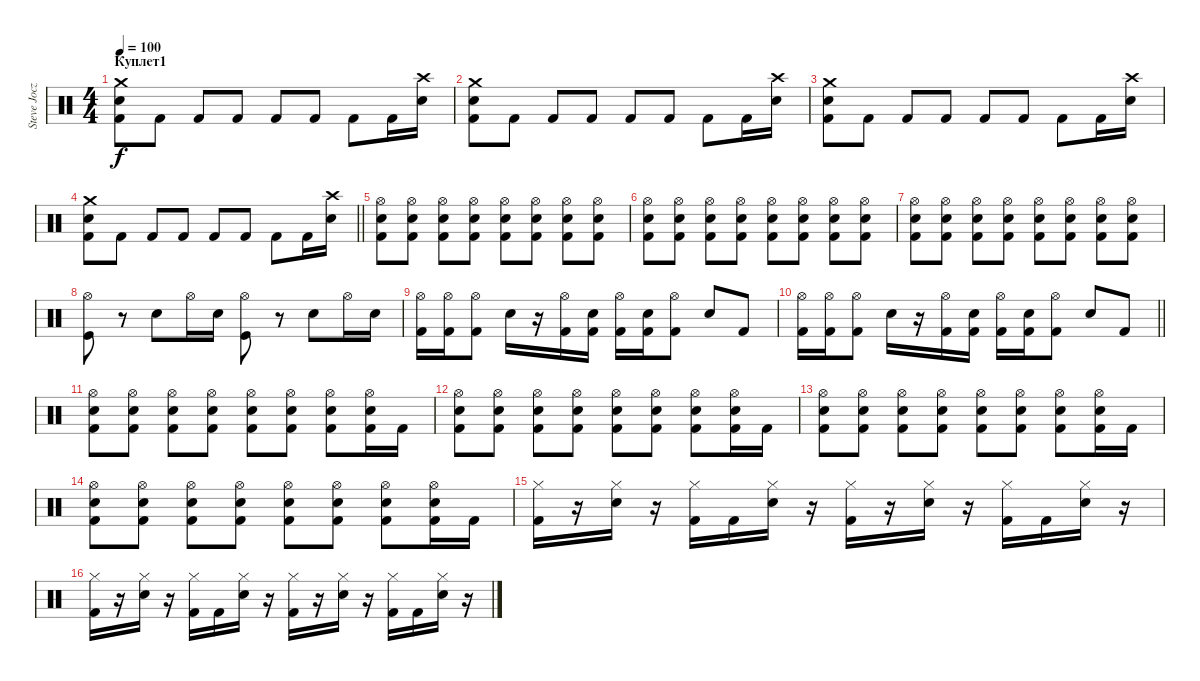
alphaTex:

\track ("Steve Jocz" "Steve Jocz") {instrument percussion}
\staff {score}
\articulation defaults
\ts (4 4)
\section ("" "Куплет1")
\tempo 100
\clef neutral
\ks c
("Crash medium (hit)" "Electric Snare (hit)" "Kick (hit) 2").8{dy f} "Kick (hit) 2".8 "Kick (hit) 2".8 "Kick (hit) 2".8 "Kick (hit) 2".8 "Kick (hit) 2".8 "Kick (hit) 2".8 "Kick (hit) 2".16 ("Crash high (hit)" "Electric Snare (hit)").16 |
("Crash medium (hit)" "Electric Snare (hit)" "Kick (hit) 2").8 "Kick (hit) 2".8 "Kick (hit) 2".8 "Kick (hit) 2".8 "Kick (hit) 2".8 "Kick (hit) 2".8 "Kick (hit) 2".8 "Kick (hit) 2".16 ("Crash high (hit)" "Electric Snare (hit)").16 |
("Crash medium (hit)" "Electric Snare (hit)" "Kick (hit) 2").8 "Kick (hit) 2".8 "Kick (hit) 2".8 "Kick (hit) 2".8 "Kick (hit) 2".8 "Kick (hit) 2".8 "Kick (hit) 2".8 "Kick (hit) 2".16 ("Crash high (hit)" "Electric Snare (hit)").16 |
\barLineRight lightlight
("Crash medium (hit)" "Electric Snare (hit)" "Kick (hit) 2").8 "Kick (hit) 2".8 "Kick (hit) 2".8 "Kick (hit) 2".8 "Kick (hit) 2".8 "Kick (hit) 2".8 "Kick (hit) 2".8 "Kick (hit) 2".16 ("Crash high (hit)" "Electric Snare (hit)").16 |
("Hi-Hat (open)" "Electric Snare (hit)" "Kick (hit) 2").8 ("Hi-Hat (open)" "Electric Snare (hit)" "Kick (hit) 2").8 ("Hi-Hat (open)" "Electric Snare (hit)" "Kick (hit) 2").8 ("Hi-Hat (open)" "Electric Snare (hit)" "Kick (hit) 2").8 ("Hi-Hat (open)" "Electric Snare (hit)" "Kick (hit) 2").8 ("Hi-Hat (open)" "Electric Snare (hit)" "Kick (hit) 2").8 ("Hi-Hat (open)" "Electric Snare (hit)" "Kick (hit) 2").8 ("Hi-Hat (open)" "Electric Snare (hit)" "Kick (hit) 2").8 |
("Hi-Hat (open)" "Electric Snare (hit)" "Kick (hit) 2").8 ("Hi-Hat (open)" "Electric Snare (hit)" "Kick (hit) 2").8 ("Hi-Hat (open)" "Electric Snare (hit)" "Kick (hit) 2").8 ("Hi-Hat (open)" "Electric Snare (hit)" "Kick (hit) 2").8 ("Hi-Hat (open)" "Electric Snare (hit)" "Kick (hit) 2").8 ("Hi-Hat (open)" "Electric Snare (hit)" "Kick (hit) 2").8 ("Hi-Hat (open)" "Electric Snare (hit)" "Kick (hit) 2").8 ("Hi-Hat (open)" "Electric Snare (hit)" "Kick (hit) 2").8 |
("Hi-Hat (open)" "Electric Snare (hit)" "Kick (hit) 2").8 ("Hi-Hat (open)" "Electric Snare (hit)" "Kick (hit) 2").8 ("Hi-Hat (open)" "Electric Snare (hit)" "Kick (hit) 2").8 ("Hi-Hat (open)" "Electric Snare (hit)" "Kick (hit) 2").8 ("Hi-Hat (open)" "Electric Snare (hit)" "Kick (hit) 2").8 ("Hi-Hat (open)" "Electric Snare (hit)" "Kick (hit) 2").8 ("Hi-Hat (open)" "Electric Snare (hit)" "Kick (hit) 2").8 ("Hi-Hat (open)" "Electric Snare (hit)" "Kick (hit) 2").8 |
("Hi-Hat (open)" "Kick (hit)").8 r.8 "Electric Snare (hit)".8 "Hi-Hat (open)".16 "Electric Snare (hit)".16 ("Hi-Hat (open)" "Kick (hit)").8 r.8 "Electric Snare (hit)".8 "Hi-Hat (open)".16 "Electric Snare (hit)".16 |
("Hi-Hat (open)" "Kick (hit) 2").16 ("Hi-Hat (open)" "Kick (hit) 2").16 ("Hi-Hat (open)" "Kick (hit) 2").8 "Electric Snare (hit)".16 r.16 ("Hi-Hat (open)" "Kick (hit) 2").16 ("Electric Snare (hit)" "Kick (hit) 2").16 ("Hi-Hat (open)" "Kick (hit) 2").16 ("Electric Snare (hit)" "Kick (hit) 2").16 ("Hi-Hat (open)" "Kick (hit) 2").8 "Electric Snare (hit)".8 "Kick (hit) 2".8 |
\barLineRight lightlight
("Hi-Hat (open)" "Kick (hit) 2").16 ("Hi-Hat (open)" "Kick (hit) 2").16 ("Hi-Hat (open)" "Kick (hit) 2").8 "Electric Snare (hit)".16 r.16 ("Hi-Hat (open)" "Kick (hit) 2").16 ("Electric Snare (hit)" "Kick (hit) 2").16 ("Hi-Hat (open)" "Kick (hit) 2").16 ("Electric Snare (hit)" "Kick (hit) 2").16 ("Hi-Hat (open)" "Kick (hit) 2").8 "Electric Snare (hit)".8 "Kick (hit) 2".8 |
("Hi-Hat (open)" "Electric Snare (hit)" "Kick (hit) 2").8 ("Hi-Hat (open)" "Electric Snare (hit)" "Kick (hit) 2").8 ("Hi-Hat (open)" "Electric Snare (hit)" "Kick (hit) 2").8 ("Hi-Hat (open)" "Electric Snare (hit)" "Kick (hit) 2").8 ("Hi-Hat (open)" "Electric Snare (hit)" "Kick (hit) 2").8 ("Hi-Hat (open)" "Electric Snare (hit)" "Kick (hit) 2").8 ("Hi-Hat (open)" "Electric Snare (hit)" "Kick (hit) 2").8 ("Hi-Hat (open)" "Electric Snare (hit)" "Kick (hit) 2").16 "Kick (hit) 2".16 |
("Hi-Hat (open)" "Electric Snare (hit)" "Kick (hit) 2").8 ("Hi-Hat (open)" "Electric Snare (hit)" "Kick (hit) 2").8 ("Hi-Hat (open)" "Electric Snare (hit)" "Kick (hit) 2").8 ("Hi-Hat (open)" "Electric Snare (hit)" "Kick (hit) 2").8 ("Hi-Hat (open)" "Electric Snare (hit)" "Kick (hit) 2").8 ("Hi-Hat (open)" "Electric Snare (hit)" "Kick (hit) 2").8 ("Hi-Hat (open)" "Electric Snare (hit)" "Kick (hit) 2").8 ("Hi-Hat (open)" "Electric Snare (hit)" "Kick (hit) 2").16 "Kick (hit) 2".16 |
("Hi-Hat (open)" "Electric Snare (hit)" "Kick (hit) 2").8 ("Hi-Hat (open)" "Electric Snare (hit)" "Kick (hit) 2").8 ("Hi-Hat (open)" "Electric Snare (hit)" "Kick (hit) 2").8 ("Hi-Hat (open)" "Electric Snare (hit)" "Kick (hit) 2").8 ("Hi-Hat (open)" "Electric Snare (hit)" "Kick (hit) 2").8 ("Hi-Hat (open)" "Electric Snare (hit)" "Kick (hit) 2").8 ("Hi-Hat (open)" "Electric Snare (hit)" "Kick (hit) 2").8 ("Hi-Hat (open)" "Electric Snare (hit)" "Kick (hit) 2").16 "Kick (hit) 2".16 |
("Hi-Hat (open)" "Electric Snare (hit)" "Kick (hit) 2").8 ("Hi-Hat (open)" "Electric Snare (hit)" "Kick (hit) 2").8 ("Hi-Hat (open)" "Electric Snare (hit)" "Kick (hit) 2").8 ("Hi-Hat (open)" "Electric Snare (hit)" "Kick (hit) 2").8 ("Hi-Hat (open)" "Electric Snare (hit)" "Kick (hit) 2").8 ("Hi-Hat (open)" "Electric Snare (hit)" "Kick (hit) 2").8 ("Hi-Hat (open)" "Electric Snare (hit)" "Kick (hit) 2").8 ("Hi-Hat (open)" "Electric Snare (hit)" "Kick (hit) 2").16 "Kick (hit) 2".16 |
("Hi-Hat (closed)" "Kick (hit) 2").16 r.16 ("Hi-Hat (closed)" "Electric Snare (hit)").16 r.16 ("Hi-Hat (closed)" "Kick (hit) 2").16 "Kick (hit) 2".16 ("Hi-Hat (closed)" "Electric Snare (hit)").16 r.16 ("Hi-Hat (closed)" "Kick (hit) 2").16 r.16 ("Hi-Hat (closed)" "Electric Snare (hit)").16 r.16 ("Hi-Hat (closed)" "Kick (hit) 2").16 "Kick (hit) 2".16 ("Hi-Hat (closed)" "Electric Snare (hit)").16 r.16 |
("Hi-Hat (closed)" "Kick (hit) 2").16 r.16 ("Hi-Hat (closed)" "Electric Snare (hit)").16 r.16 ("Hi-Hat (closed)" "Kick (hit) 2").16 "Kick (hit) 2".16 ("Hi-Hat (closed)" "Electric Snare (hit)").16 r.16 ("Hi-Hat (closed)" "Kick (hit) 2").16 r.16 ("Hi-Hat (closed)" "Electric Snare (hit)").16 r.16 ("Hi-Hat (closed)" "Kick (hit) 2").16 "Kick (hit) 2".16 ("Hi-Hat (closed)" "Electric Snare (hit)").16 r.16
